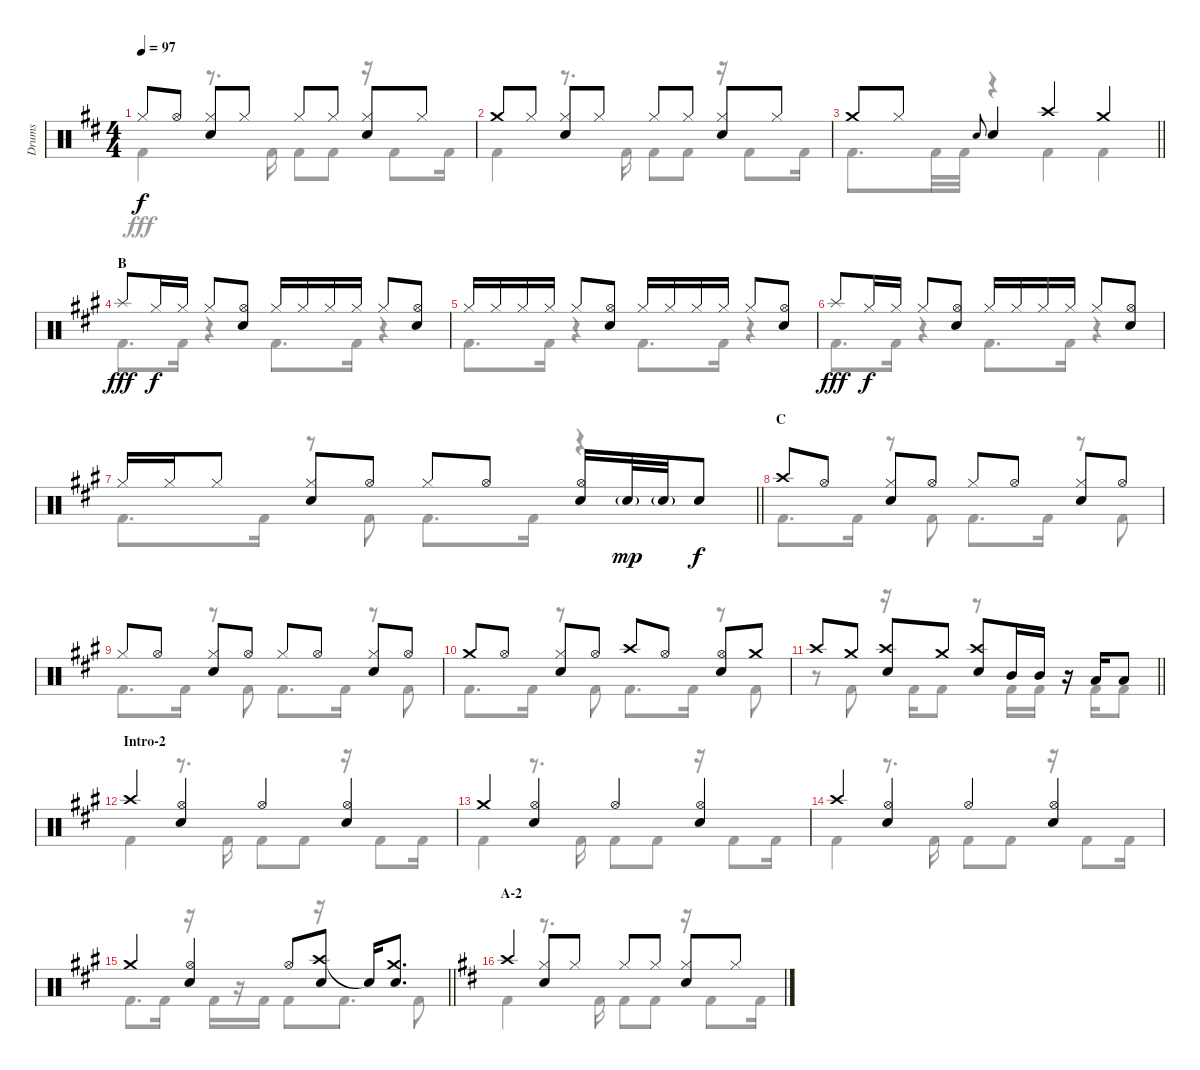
\track ("Drums" "Drums") {instrument percussion}
\staff {score}
\articulation defaults
\voice
\ts (4 4)
\tempo 97
\clef neutral
\ks d "Hi-Hat (closed)".8{dy f} "Hi-Hat (open)".8
("Hi-Hat (closed)" "Snare (hit) 2").8 "Hi-Hat (closed)".8 "Hi-Hat (closed)".8 "Hi-Hat (closed)".8 ("Hi-Hat (closed)" "Snare (hit) 2").8 "Hi-Hat (closed)".8 |
"Crash medium (hit)".8 "Hi-Hat (closed)".8 ("Hi-Hat (closed)" "Snare (hit) 2").8 "Hi-Hat (closed)".8 "Hi-Hat (closed)".8 "Hi-Hat (closed)".8 ("Hi-Hat (closed)" "Snare (hit) 2").8 "Hi-Hat (closed)".8 |
\barLineRight lightlight "Crash medium (hit)".8 "Hi-Hat (closed)".8 "Snare (hit) 2".8{gr onbeat} "Snare (hit) 2".4 "Crash high (hit)".4 "Crash medium (hit)".4
|
\section ("" "B")
\ks a "Splash (hit)".8{dy fff} "Hi-Hat (closed)".16{dy f} "Hi-Hat (closed)".16 "Hi-Hat (closed)".8
("Hi-Hat (open)" "Snare (hit) 2").8 "Hi-Hat (closed)".16 "Hi-Hat (closed)".16 "Hi-Hat (closed)".16 "Hi-Hat (closed)".16 "Hi-Hat (closed)".8 ("Hi-Hat (open)" "Snare (hit) 2").8 |
"Hi-Hat (closed)".16 "Hi-Hat (closed)".16 "Hi-Hat (closed)".16 "Hi-Hat (closed)".16 "Hi-Hat (closed)".8 ("Hi-Hat (open)" "Snare (hit) 2").8 "Hi-Hat (closed)".16 "Hi-Hat (closed)".16 "Hi-Hat (closed)".16 "Hi-Hat (closed)".16 "Hi-Hat (closed)".8 ("Hi-Hat (open)" "Snare (hit) 2").8 |
"Splash (hit)".8{dy fff} "Hi-Hat (closed)".16{dy f} "Hi-Hat (closed)".16 "Hi-Hat (closed)".8 ("Hi-Hat (open)" "Snare (hit) 2").8 "Hi-Hat (closed)".16 "Hi-Hat (closed)".16 "Hi-Hat (closed)".16 "Hi-Hat (closed)".16 "Hi-Hat (closed)".8 ("Hi-Hat (open)" "Snare (hit) 2").8 |
\barLineRight lightlight "Hi-Hat (closed)".16 "Hi-Hat (closed)".16 "Hi-Hat (closed)".8
("Hi-Hat (closed)" "Snare (hit) 2").8 "Hi-Hat (open)".8 "Hi-Hat (closed)".8 "Hi-Hat (open)".8 ("Hi-Hat (open)" "Snare (hit) 2").16 "Snare (hit) 2"{g}.32{dy mp} "Snare (hit) 2"{g}.32 "Snare (hit) 2".8{dy f} |
\section ("" "C")
"Crash high (hit)".8 "Hi-Hat (open)".8 ("Hi-Hat (closed)" "Snare (hit) 2").8 "Hi-Hat (open)".8 "Hi-Hat (closed)".8 "Hi-Hat (open)".8 ("Hi-Hat (closed)" "Snare (hit) 2").8 "Hi-Hat (open)".8 |
"Hi-Hat (closed)".8 "Hi-Hat (open)".8 ("Hi-Hat (closed)" "Snare (hit) 2").8 "Hi-Hat (open)".8 "Hi-Hat (closed)".8 "Hi-Hat (open)".8 ("Hi-Hat (closed)" "Snare (hit) 2").8 "Hi-Hat (open)".8 |
"Crash medium (hit)".8 "Hi-Hat (open)".8 ("Hi-Hat (closed)" "Snare (hit) 2").8 "Hi-Hat (open)".8 "Crash high (hit)".8 "Hi-Hat (open)".8 ("Hi-Hat (open)" "Snare (hit) 2").8 "Crash medium (hit)".8 |
\barLineRight lightlight "Crash high (hit)".8 "Crash medium (hit)".8
("Crash high (hit)" "Snare (hit) 2").8 "Crash medium (hit)".8 ("Crash high (hit)" "Snare (hit) 2").8 "Mid Tom (hit)".16 "Mid Tom (hit)".16 r.16 "Low Tom (hit)".16 "Low Tom (hit)".8 |
\section ("" "Intro-2")
"Crash high (hit)".4 ("Hi-Hat (open)" "Snare (hit) 2").4 "Hi-Hat (open)".4 ("Hi-Hat (open)" "Snare (hit) 2").4 |
"Crash medium (hit)".4 ("Hi-Hat (open)" "Snare (hit) 2").4 "Hi-Hat (open)".4 ("Hi-Hat (open)" "Snare (hit) 2").4 |
"Crash high (hit)".4 ("Hi-Hat (open)" "Snare (hit) 2").4 "Hi-Hat (open)".4 ("Hi-Hat (open)" "Snare (hit) 2").4 |
\barLineRight lightlight "Crash medium (hit)".4
("Hi-Hat (open)" "Snare (hit) 2").4 "Hi-Hat (open)".8 ("Crash high (hit)" "Snare (hit) 2").8 "Snare (hit)"{t}.16 ("Crash medium (hit)" "Snare (hit) 2").8{d} |
\section ("" "A-2")
\ks d "Crash high (hit)".4
("Hi-Hat (closed)" "Snare (hit) 2").8 "Hi-Hat (closed)".8 "Hi-Hat (closed)".8 "Hi-Hat (closed)".8 ("Hi-Hat (closed)" "Snare (hit) 2").8 "Hi-Hat (closed)".8
\voice
\clef neutral
\ottava regular
\simile none
\ks d "Kick (hit) 2".4{dy fff}
r.8{d} "Kick (hit) 2".16 "Kick (hit) 2".8 "Kick (hit) 2".8 r.16 "Kick (hit) 2".8 "Kick (hit) 2".16 |
"Kick (hit) 2".4 r.8{d} "Kick (hit) 2".16 "Kick (hit) 2".8 "Kick (hit) 2".8 r.16 "Kick (hit) 2".8 "Kick (hit) 2".16 |
\barLineRight lightlight "Kick (hit) 2".8{d} "Kick (hit) 2".32 "Kick (hit) 2".32
r.4 "Kick (hit) 2".4 "Kick (hit) 2".4 |
\ks a "Kick (hit) 2".8{d} "Kick (hit) 2".16
r.4 "Kick (hit) 2".8{d} "Kick (hit) 2".16 r.4 |
"Kick (hit) 2".8{d} "Kick (hit) 2".16 r.4 "Kick (hit) 2".8{d} "Kick (hit) 2".16 r.4 |
"Kick (hit) 2".8{d} "Kick (hit) 2".16 r.4 "Kick (hit) 2".8{d} "Kick (hit) 2".16 r.4 |
\barLineRight lightlight "Kick (hit) 2".8{d} "Kick (hit) 2".16
r.8 "Kick (hit) 2".8 "Kick (hit) 2".8{d} "Kick (hit) 2".16 r.4 |
"Kick (hit) 2".8{d} "Kick (hit) 2".16 r.8 "Kick (hit) 2".8 "Kick (hit) 2".8{d} "Kick (hit) 2".16 r.8 "Kick (hit) 2".8 |
"Kick (hit) 2".8{d} "Kick (hit) 2".16 r.8 "Kick (hit) 2".8 "Kick (hit) 2".8{d} "Kick (hit) 2".16 r.8 "Kick (hit) 2".8 |
"Kick (hit) 2".8{d} "Kick (hit) 2".16 r.8 "Kick (hit) 2".8 "Kick (hit) 2".8{d} "Kick (hit) 2".16 r.8 "Kick (hit) 2".8 |
\barLineRight lightlight
r.8 "Kick (hit) 2".8 r.16 "Kick (hit) 2".16 "Kick (hit) 2".8 r.8 "Kick (hit) 2".16 "Kick (hit) 2".16 r.16 "Kick (hit) 2".16 "Kick (hit) 2".8 |
"Kick (hit) 2".4 r.8{d} "Kick (hit) 2".16 "Kick (hit) 2".8 "Kick (hit) 2".8 r.16 "Kick (hit) 2".8 "Kick (hit) 2".16 |
"Kick (hit) 2".4 r.8{d} "Kick (hit) 2".16 "Kick (hit) 2".8 "Kick (hit) 2".8 r.16 "Kick (hit) 2".8 "Kick (hit) 2".16 |
"Kick (hit) 2".4 r.8{d} "Kick (hit) 2".16 "Kick (hit) 2".8 "Kick (hit) 2".8 r.16 "Kick (hit) 2".8 "Kick (hit) 2".16 |
\barLineRight lightlight "Kick (hit) 2".8{d} "Kick (hit) 2".16
r.16 "Kick (hit) 2".16 r.16 "Kick (hit) 2".16 "Kick (hit) 2".8 r.16 "Kick (hit) 2".8{d} "Kick (hit) 2".8 |
\ks d "Kick (hit) 2".4
r.8{d} "Kick (hit) 2".16 "Kick (hit) 2".8 "Kick (hit) 2".8 r.16 "Kick (hit) 2".8 "Kick (hit) 2".16
